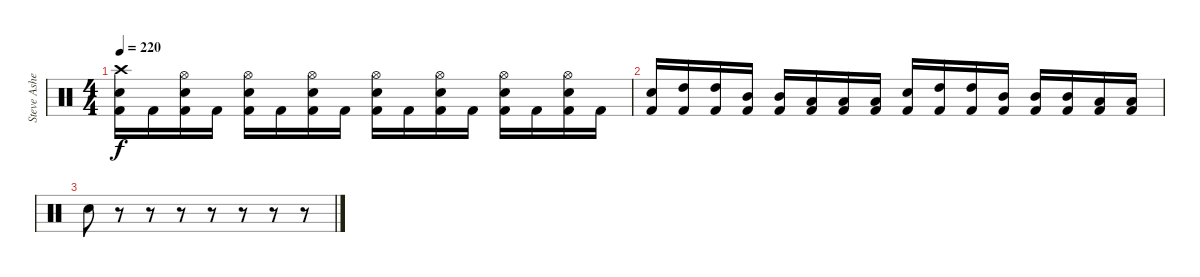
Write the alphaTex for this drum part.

\track ("Steve Asheim" "Steve Ashe") {instrument percussion}
\staff {score}
\articulation defaults
\ts (4 4)
\tempo 220
\clef neutral
\ks c
("Crash high (hit)" "Electric Snare (hit)" "Kick (hit) 2").16{dy f} "Kick (hit) 2".16 ("Hi-Hat (open)" "Electric Snare (hit)" "Kick (hit) 2").16 "Kick (hit) 2".16 ("Hi-Hat (open)" "Electric Snare (hit)" "Kick (hit) 2").16 "Kick (hit) 2".16 ("Hi-Hat (open)" "Electric Snare (hit)" "Kick (hit) 2").16 "Kick (hit) 2".16 ("Hi-Hat (open)" "Electric Snare (hit)" "Kick (hit) 2").16 "Kick (hit) 2".16 ("Hi-Hat (open)" "Electric Snare (hit)" "Kick (hit) 2").16 "Kick (hit) 2".16 ("Hi-Hat (open)" "Electric Snare (hit)" "Kick (hit) 2").16 "Kick (hit) 2".16 ("Hi-Hat (open)" "Electric Snare (hit)" "Kick (hit) 2").16 "Kick (hit) 2".16 |
("Electric Snare (hit)" "Kick (hit) 2").16 ("High Tom (hit)" "Kick (hit) 2").16 ("High Tom (hit)" "Kick (hit) 2").16 ("Mid Tom (hit)" "Kick (hit) 2").16 ("Mid Tom (hit)" "Kick (hit) 2").16 ("Low Tom (hit)" "Kick (hit) 2").16 ("Low Tom (hit)" "Kick (hit) 2").16 ("Low Tom (hit)" "Kick (hit) 2").16 ("Electric Snare (hit)" "Kick (hit) 2").16 ("High Tom (hit)" "Kick (hit) 2").16 ("High Tom (hit)" "Kick (hit) 2").16 ("Mid Tom (hit)" "Kick (hit) 2").16 ("Mid Tom (hit)" "Kick (hit) 2").16 ("Mid Tom (hit)" "Kick (hit) 2").16 ("Low Tom (hit)" "Kick (hit) 2").16 ("Low Tom (hit)" "Kick (hit) 2").16 |
"Electric Snare (hit)".8 r.8 r.8 r.8 r.8 r.8 r.8 r.8
